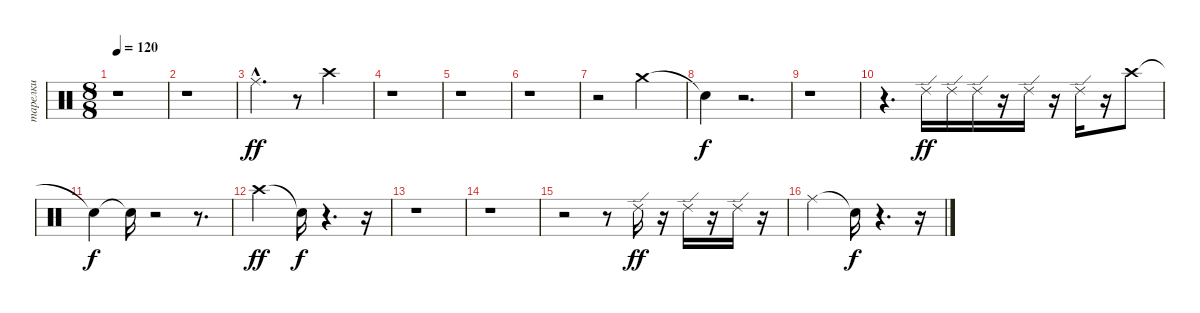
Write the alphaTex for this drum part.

\track ("тарелки" "тарелки") {instrument percussion}
\staff {score}
\articulation defaults
\ts (8 8)
\tempo 120
\clef neutral
\ks c
r.1{dy f} |
r.1 |
"Ride (middle)"{hac}.4{d dy ff} r.8 "Crash high (hit)".2 |
r.1 |
r.1 |
r.1 |
r.2 "Crash medium (hit)".2 |
"Snare (hit)"{t}.4{dy f} r.2{d} |
r.1 |
r.4{d} "Ride (edge) 2".16{dy ff} "Ride (edge) 2".16 "Ride (edge) 2".16 r.16 "Ride (edge) 2".16 r.16 "Ride (edge) 2".16 r.16 "Crash high (hit)".8 |
"Snare (hit)"{t}.4{dy f} "Snare (hit)"{t}.16 r.2 r.8{d} |
"Crash high (hit)".2{dy ff} "Snare (hit)"{t}.16{dy f} r.4{d} r.16 |
r.1 |
r.1 |
r.2 r.8 "Ride (edge) 2".16{dy ff} r.16 "Ride (edge) 2".16 r.16 "Ride (edge) 2".16 r.16 |
"Ride (middle)".2 "Snare (hit)"{t}.16{dy f} r.4{d} r.16
